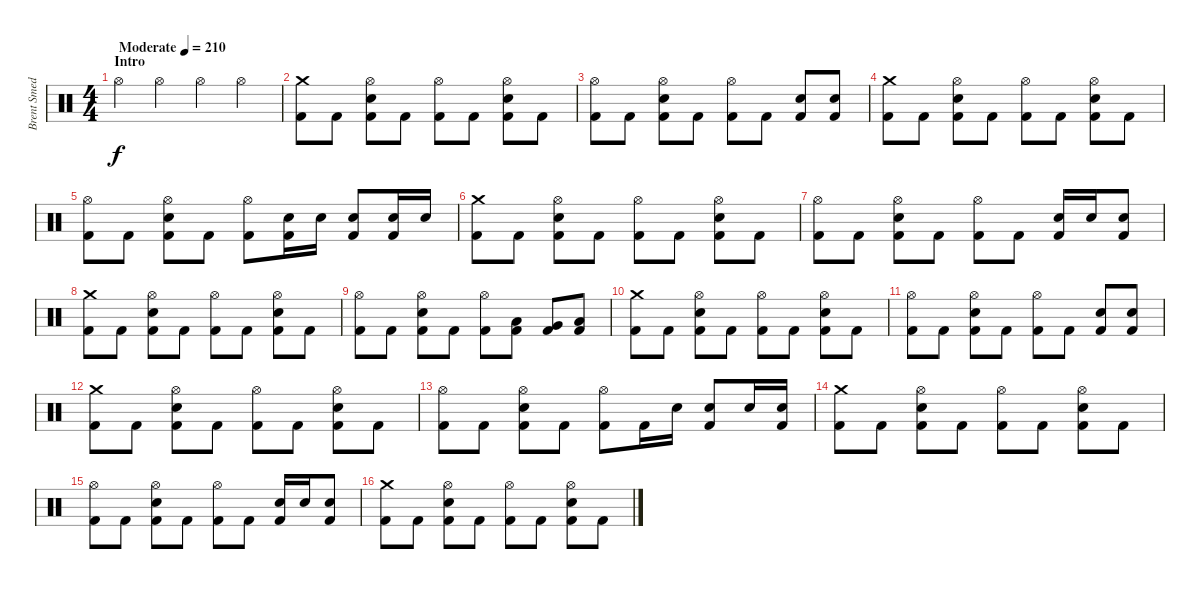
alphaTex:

\track ("Brent Smedley" "Brent Smed") {instrument percussion}
\staff {score}
\articulation defaults
\ts (4 4)
\section ("" "Intro")
\tempo (210 "Moderate")
\clef neutral
\ks c "Hi-Hat (open)".4{dy f} "Hi-Hat (open)".4 "Hi-Hat (open)".4 "Hi-Hat (open)".4
|
("Crash medium (hit)" "Kick (hit) 2").8 "Kick (hit) 2".8 ("Hi-Hat (open)" "Electric Snare (hit)" "Kick (hit) 2").8 "Kick (hit) 2".8 ("Hi-Hat (open)" "Kick (hit) 2").8 "Kick (hit) 2".8 ("Hi-Hat (open)" "Electric Snare (hit)" "Kick (hit) 2").8 "Kick (hit) 2".8 |
("Hi-Hat (open)" "Kick (hit) 2").8 "Kick (hit) 2".8 ("Hi-Hat (open)" "Electric Snare (hit)" "Kick (hit) 2").8 "Kick (hit) 2".8 ("Hi-Hat (open)" "Kick (hit) 2").8 "Kick (hit) 2".8 ("Electric Snare (hit)" "Kick (hit) 2").8 ("Electric Snare (hit)" "Kick (hit) 2").8 |
("Crash medium (hit)" "Kick (hit) 2").8 "Kick (hit) 2".8 ("Hi-Hat (open)" "Electric Snare (hit)" "Kick (hit) 2").8 "Kick (hit) 2".8 ("Hi-Hat (open)" "Kick (hit) 2").8 "Kick (hit) 2".8 ("Hi-Hat (open)" "Electric Snare (hit)" "Kick (hit) 2").8 "Kick (hit) 2".8 |
("Hi-Hat (open)" "Kick (hit) 2").8 "Kick (hit) 2".8 ("Hi-Hat (open)" "Electric Snare (hit)" "Kick (hit) 2").8 "Kick (hit) 2".8 ("Hi-Hat (open)" "Kick (hit) 2").8 ("Electric Snare (hit)" "Kick (hit) 2").16 "Electric Snare (hit)".16 ("Electric Snare (hit)" "Kick (hit) 2").8 ("Electric Snare (hit)" "Kick (hit) 2").16 "Electric Snare (hit)".16 |
("Crash medium (hit)" "Kick (hit) 2").8 "Kick (hit) 2".8 ("Hi-Hat (open)" "Electric Snare (hit)" "Kick (hit) 2").8 "Kick (hit) 2".8 ("Hi-Hat (open)" "Kick (hit) 2").8 "Kick (hit) 2".8 ("Hi-Hat (open)" "Electric Snare (hit)" "Kick (hit) 2").8 "Kick (hit) 2".8 |
("Hi-Hat (open)" "Kick (hit) 2").8 "Kick (hit) 2".8 ("Hi-Hat (open)" "Electric Snare (hit)" "Kick (hit) 2").8 "Kick (hit) 2".8 ("Hi-Hat (open)" "Kick (hit) 2").8 "Kick (hit) 2".8 ("Electric Snare (hit)" "Kick (hit) 2").16 "Electric Snare (hit)".16 ("Electric Snare (hit)" "Kick (hit) 2").8 |
("Crash medium (hit)" "Kick (hit) 2").8 "Kick (hit) 2".8 ("Hi-Hat (open)" "Electric Snare (hit)" "Kick (hit) 2").8 "Kick (hit) 2".8 ("Hi-Hat (open)" "Kick (hit) 2").8 "Kick (hit) 2".8 ("Hi-Hat (open)" "Electric Snare (hit)" "Kick (hit) 2").8 "Kick (hit) 2".8 |
("Hi-Hat (open)" "Kick (hit) 2").8 "Kick (hit) 2".8 ("Hi-Hat (open)" "Electric Snare (hit)" "Kick (hit) 2").8 "Kick (hit) 2".8 ("Hi-Hat (open)" "Kick (hit) 2").8 ("Low Tom (hit)" "Kick (hit) 2").8 ("Very Low Tom (hit)" "Kick (hit) 2").8 ("Low Floor Tom (hit)" "Kick (hit) 2").8 |
("Crash medium (hit)" "Kick (hit) 2").8 "Kick (hit) 2".8 ("Hi-Hat (open)" "Electric Snare (hit)" "Kick (hit) 2").8 "Kick (hit) 2".8 ("Hi-Hat (open)" "Kick (hit) 2").8 "Kick (hit) 2".8 ("Hi-Hat (open)" "Electric Snare (hit)" "Kick (hit) 2").8 "Kick (hit) 2".8 |
("Hi-Hat (open)" "Kick (hit) 2").8 "Kick (hit) 2".8 ("Hi-Hat (open)" "Electric Snare (hit)" "Kick (hit) 2").8 "Kick (hit) 2".8 ("Hi-Hat (open)" "Kick (hit) 2").8 "Kick (hit) 2".8 ("Electric Snare (hit)" "Kick (hit) 2").8 ("Electric Snare (hit)" "Kick (hit) 2").8 |
("Crash medium (hit)" "Kick (hit) 2").8 "Kick (hit) 2".8 ("Hi-Hat (open)" "Electric Snare (hit)" "Kick (hit) 2").8 "Kick (hit) 2".8 ("Hi-Hat (open)" "Kick (hit) 2").8 "Kick (hit) 2".8 ("Hi-Hat (open)" "Electric Snare (hit)" "Kick (hit) 2").8 "Kick (hit) 2".8 |
("Hi-Hat (open)" "Kick (hit) 2").8 "Kick (hit) 2".8 ("Hi-Hat (open)" "Electric Snare (hit)" "Kick (hit) 2").8 "Kick (hit) 2".8 ("Hi-Hat (open)" "Kick (hit) 2").8 "Kick (hit) 2".16 "Electric Snare (hit)".16 ("Electric Snare (hit)" "Kick (hit) 2").8 "Electric Snare (hit)".16 ("Electric Snare (hit)" "Kick (hit) 2").16 |
("Crash medium (hit)" "Kick (hit) 2").8 "Kick (hit) 2".8 ("Hi-Hat (open)" "Electric Snare (hit)" "Kick (hit) 2").8 "Kick (hit) 2".8 ("Hi-Hat (open)" "Kick (hit) 2").8 "Kick (hit) 2".8 ("Hi-Hat (open)" "Electric Snare (hit)" "Kick (hit) 2").8 "Kick (hit) 2".8 |
("Hi-Hat (open)" "Kick (hit) 2").8 "Kick (hit) 2".8 ("Hi-Hat (open)" "Electric Snare (hit)" "Kick (hit) 2").8 "Kick (hit) 2".8 ("Hi-Hat (open)" "Kick (hit) 2").8 "Kick (hit) 2".8 ("Electric Snare (hit)" "Kick (hit) 2").16 "Electric Snare (hit)".16 ("Electric Snare (hit)" "Kick (hit) 2").8 |
("Crash medium (hit)" "Kick (hit) 2").8 "Kick (hit) 2".8 ("Hi-Hat (open)" "Electric Snare (hit)" "Kick (hit) 2").8 "Kick (hit) 2".8 ("Hi-Hat (open)" "Kick (hit) 2").8 "Kick (hit) 2".8 ("Hi-Hat (open)" "Electric Snare (hit)" "Kick (hit) 2").8 "Kick (hit) 2".8
